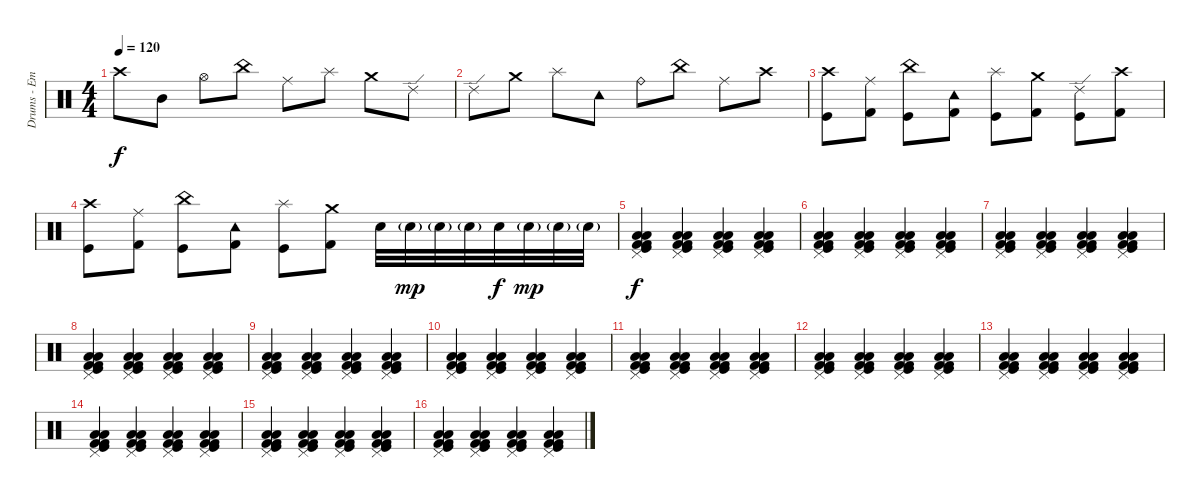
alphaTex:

\track ("Drums - Emhyr var Emreis" "Drums - Em") {instrument percussion}
\staff {score}
\articulation defaults
\ts (4 4)
\tempo 120
\clef neutral
\ks c "Crash high (hit)".8{dy f} "Mid Tom (hit)".8 "Hi-Hat (open)".8 "China (hit)".8 "Ride (middle)".8 "Splash (hit)".8 "Crash medium (hit)".8 "Ride (edge) 2".8
|
"Ride (edge) 2".8 "Crash medium (hit)".8 "Splash (hit)".8 "Tambourine (hit)".8 "Ride (bell)".8 "China (hit)".8 "Ride (middle)".8 "Crash high (hit)".8 |
("Kick (hit)" "Crash high (hit)").8 ("Ride (middle)" "Kick (hit) 2").8 ("Kick (hit)" "China (hit)").8 ("Tambourine (hit)" "Kick (hit) 2").8 ("Kick (hit)" "Splash (hit)").8 ("Crash medium (hit)" "Kick (hit) 2").8 ("Kick (hit)" "Ride (edge) 2").8 ("Crash high (hit)" "Kick (hit) 2").8 |
("Kick (hit)" "Crash high (hit)").8 ("Ride (middle)" "Kick (hit) 2").8 ("Kick (hit)" "China (hit)").8 ("Tambourine (hit)" "Kick (hit) 2").8 ("Kick (hit)" "Splash (hit)").8 ("Crash medium (hit)" "Kick (hit) 2").8 "Electric Snare (hit)".32 "Electric Snare (hit)"{g}.32{dy mp} "Electric Snare (hit)"{g}.32 "Electric Snare (hit)"{g}.32 "Electric Snare (hit)".32{dy f} "Electric Snare (hit)"{g}.32{dy mp} "Electric Snare (hit)"{g}.32 "Electric Snare (hit)"{g}.32 |
("Low Floor Tom (hit)" "Kick (hit) 2" "Kick (hit)" "Low Tom (hit)" "Pedal Hi-Hat (hit)" "Kick (hit) 2").4{dy f} ("Low Floor Tom (hit)" "Kick (hit) 2" "Kick (hit)" "Low Tom (hit)" "Pedal Hi-Hat (hit)" "Kick (hit) 2").4 ("Low Floor Tom (hit)" "Kick (hit) 2" "Kick (hit)" "Low Tom (hit)" "Pedal Hi-Hat (hit)" "Kick (hit) 2").4 ("Low Floor Tom (hit)" "Kick (hit) 2" "Kick (hit)" "Low Tom (hit)" "Pedal Hi-Hat (hit)" "Kick (hit) 2").4 |
("Low Floor Tom (hit)" "Kick (hit) 2" "Kick (hit)" "Low Tom (hit)" "Pedal Hi-Hat (hit)" "Kick (hit) 2").4 ("Low Floor Tom (hit)" "Kick (hit) 2" "Kick (hit)" "Low Tom (hit)" "Pedal Hi-Hat (hit)" "Kick (hit) 2").4 ("Low Floor Tom (hit)" "Kick (hit) 2" "Kick (hit)" "Low Tom (hit)" "Pedal Hi-Hat (hit)" "Kick (hit) 2").4 ("Low Floor Tom (hit)" "Kick (hit) 2" "Kick (hit)" "Low Tom (hit)" "Pedal Hi-Hat (hit)" "Kick (hit) 2").4 |
("Low Floor Tom (hit)" "Kick (hit) 2" "Kick (hit)" "Low Tom (hit)" "Pedal Hi-Hat (hit)" "Kick (hit) 2").4 ("Low Floor Tom (hit)" "Kick (hit) 2" "Kick (hit)" "Low Tom (hit)" "Pedal Hi-Hat (hit)" "Kick (hit) 2").4 ("Low Floor Tom (hit)" "Kick (hit) 2" "Kick (hit)" "Low Tom (hit)" "Pedal Hi-Hat (hit)" "Kick (hit) 2").4 ("Low Floor Tom (hit)" "Kick (hit) 2" "Kick (hit)" "Low Tom (hit)" "Pedal Hi-Hat (hit)" "Kick (hit) 2").4 |
("Low Floor Tom (hit)" "Kick (hit) 2" "Kick (hit)" "Low Tom (hit)" "Pedal Hi-Hat (hit)" "Kick (hit) 2").4 ("Low Floor Tom (hit)" "Kick (hit) 2" "Kick (hit)" "Low Tom (hit)" "Pedal Hi-Hat (hit)" "Kick (hit) 2").4 ("Low Floor Tom (hit)" "Kick (hit) 2" "Kick (hit)" "Low Tom (hit)" "Pedal Hi-Hat (hit)" "Kick (hit) 2").4 ("Low Floor Tom (hit)" "Kick (hit) 2" "Kick (hit)" "Low Tom (hit)" "Pedal Hi-Hat (hit)" "Kick (hit) 2").4 |
("Low Floor Tom (hit)" "Kick (hit) 2" "Kick (hit)" "Low Tom (hit)" "Pedal Hi-Hat (hit)" "Kick (hit) 2").4 ("Low Floor Tom (hit)" "Kick (hit) 2" "Kick (hit)" "Low Tom (hit)" "Pedal Hi-Hat (hit)" "Kick (hit) 2").4 ("Low Floor Tom (hit)" "Kick (hit) 2" "Kick (hit)" "Low Tom (hit)" "Pedal Hi-Hat (hit)" "Kick (hit) 2").4 ("Low Floor Tom (hit)" "Kick (hit) 2" "Kick (hit)" "Low Tom (hit)" "Pedal Hi-Hat (hit)" "Kick (hit) 2").4 |
("Low Floor Tom (hit)" "Kick (hit) 2" "Kick (hit)" "Low Tom (hit)" "Pedal Hi-Hat (hit)" "Kick (hit) 2").4 ("Low Floor Tom (hit)" "Kick (hit) 2" "Kick (hit)" "Low Tom (hit)" "Pedal Hi-Hat (hit)" "Kick (hit) 2").4 ("Low Floor Tom (hit)" "Kick (hit) 2" "Kick (hit)" "Low Tom (hit)" "Pedal Hi-Hat (hit)" "Kick (hit) 2").4 ("Low Floor Tom (hit)" "Kick (hit) 2" "Kick (hit)" "Low Tom (hit)" "Pedal Hi-Hat (hit)" "Kick (hit) 2").4 |
("Low Floor Tom (hit)" "Kick (hit) 2" "Kick (hit)" "Low Tom (hit)" "Pedal Hi-Hat (hit)" "Kick (hit) 2").4 ("Low Floor Tom (hit)" "Kick (hit) 2" "Kick (hit)" "Low Tom (hit)" "Pedal Hi-Hat (hit)" "Kick (hit) 2").4 ("Low Floor Tom (hit)" "Kick (hit) 2" "Kick (hit)" "Low Tom (hit)" "Pedal Hi-Hat (hit)" "Kick (hit) 2").4 ("Low Floor Tom (hit)" "Kick (hit) 2" "Kick (hit)" "Low Tom (hit)" "Pedal Hi-Hat (hit)" "Kick (hit) 2").4 |
("Low Floor Tom (hit)" "Kick (hit) 2" "Kick (hit)" "Low Tom (hit)" "Pedal Hi-Hat (hit)" "Kick (hit) 2").4 ("Low Floor Tom (hit)" "Kick (hit) 2" "Kick (hit)" "Low Tom (hit)" "Pedal Hi-Hat (hit)" "Kick (hit) 2").4 ("Low Floor Tom (hit)" "Kick (hit) 2" "Kick (hit)" "Low Tom (hit)" "Pedal Hi-Hat (hit)" "Kick (hit) 2").4 ("Low Floor Tom (hit)" "Kick (hit) 2" "Kick (hit)" "Low Tom (hit)" "Pedal Hi-Hat (hit)" "Kick (hit) 2").4 |
("Low Floor Tom (hit)" "Kick (hit) 2" "Kick (hit)" "Low Tom (hit)" "Pedal Hi-Hat (hit)" "Kick (hit) 2").4 ("Low Floor Tom (hit)" "Kick (hit) 2" "Kick (hit)" "Low Tom (hit)" "Pedal Hi-Hat (hit)" "Kick (hit) 2").4 ("Low Floor Tom (hit)" "Kick (hit) 2" "Kick (hit)" "Low Tom (hit)" "Pedal Hi-Hat (hit)" "Kick (hit) 2").4 ("Low Floor Tom (hit)" "Kick (hit) 2" "Kick (hit)" "Low Tom (hit)" "Pedal Hi-Hat (hit)" "Kick (hit) 2").4 |
("Low Floor Tom (hit)" "Kick (hit) 2" "Kick (hit)" "Low Tom (hit)" "Pedal Hi-Hat (hit)" "Kick (hit) 2").4 ("Low Floor Tom (hit)" "Kick (hit) 2" "Kick (hit)" "Low Tom (hit)" "Pedal Hi-Hat (hit)" "Kick (hit) 2").4 ("Low Floor Tom (hit)" "Kick (hit) 2" "Kick (hit)" "Low Tom (hit)" "Pedal Hi-Hat (hit)" "Kick (hit) 2").4 ("Low Floor Tom (hit)" "Kick (hit) 2" "Kick (hit)" "Low Tom (hit)" "Pedal Hi-Hat (hit)" "Kick (hit) 2").4 |
("Low Floor Tom (hit)" "Kick (hit) 2" "Kick (hit)" "Low Tom (hit)" "Pedal Hi-Hat (hit)" "Kick (hit) 2").4 ("Low Floor Tom (hit)" "Kick (hit) 2" "Kick (hit)" "Low Tom (hit)" "Pedal Hi-Hat (hit)" "Kick (hit) 2").4 ("Low Floor Tom (hit)" "Kick (hit) 2" "Kick (hit)" "Low Tom (hit)" "Pedal Hi-Hat (hit)" "Kick (hit) 2").4 ("Low Floor Tom (hit)" "Kick (hit) 2" "Kick (hit)" "Low Tom (hit)" "Pedal Hi-Hat (hit)" "Kick (hit) 2").4 |
("Low Floor Tom (hit)" "Kick (hit) 2" "Kick (hit)" "Low Tom (hit)" "Pedal Hi-Hat (hit)" "Kick (hit) 2").4 ("Low Floor Tom (hit)" "Kick (hit) 2" "Kick (hit)" "Low Tom (hit)" "Pedal Hi-Hat (hit)" "Kick (hit) 2").4 ("Low Floor Tom (hit)" "Kick (hit) 2" "Kick (hit)" "Low Tom (hit)" "Pedal Hi-Hat (hit)" "Kick (hit) 2").4 ("Low Floor Tom (hit)" "Kick (hit) 2" "Kick (hit)" "Low Tom (hit)" "Pedal Hi-Hat (hit)" "Kick (hit) 2").4
